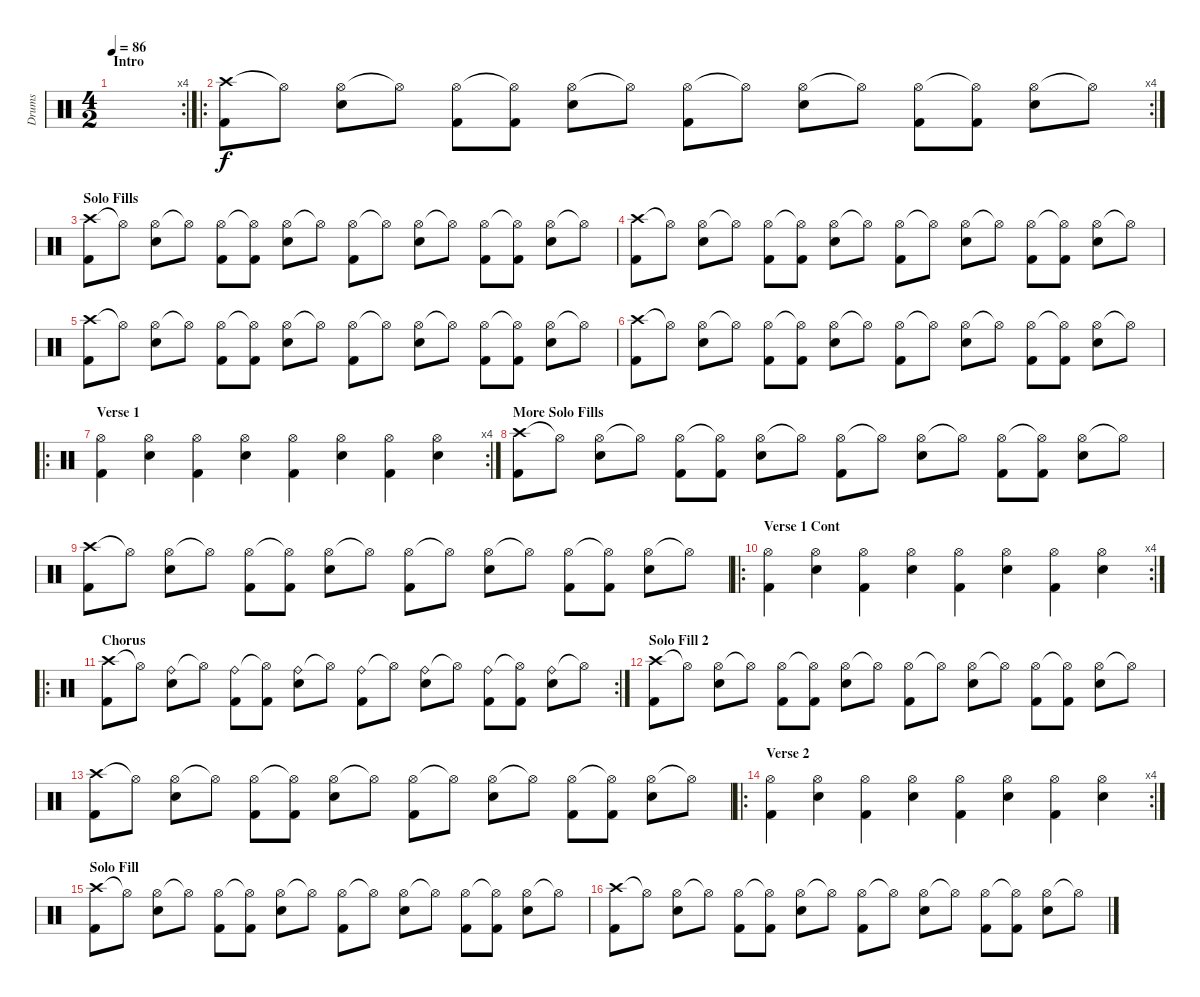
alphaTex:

\track ("Drums" "Drums") {instrument percussion}
\staff {score}
\articulation defaults
\rc 4
\ts (4 2)
\section ("" "Intro")
\tempo 86
\clef neutral
\ks c
|
\ro
\rc 4
("Crash high (hit)" "Kick (hit) 2").8 "Hi-Hat (open)"{t}.8 ("Hi-Hat (open)" "Electric Snare (hit)").8 "Hi-Hat (open)"{t}.8 ("Hi-Hat (open)" "Kick (hit) 2").8 ("Hi-Hat (open)"{t} "Kick (hit) 2").8 ("Hi-Hat (open)" "Electric Snare (hit)").8 "Hi-Hat (open)"{t}.8 ("Hi-Hat (open)" "Kick (hit) 2").8 "Hi-Hat (open)"{t}.8 ("Hi-Hat (open)" "Electric Snare (hit)").8 "Hi-Hat (open)"{t}.8 ("Hi-Hat (open)" "Kick (hit) 2").8 ("Hi-Hat (open)"{t} "Kick (hit) 2").8 ("Hi-Hat (open)" "Electric Snare (hit)").8 "Hi-Hat (open)"{t}.8 |
\section ("" "Solo Fills")
("Crash high (hit)" "Kick (hit) 2").8 "Hi-Hat (open)"{t}.8 ("Hi-Hat (open)" "Electric Snare (hit)").8 "Hi-Hat (open)"{t}.8 ("Hi-Hat (open)" "Kick (hit) 2").8 ("Hi-Hat (open)"{t} "Kick (hit) 2").8 ("Hi-Hat (open)" "Electric Snare (hit)").8 "Hi-Hat (open)"{t}.8 ("Hi-Hat (open)" "Kick (hit) 2").8 "Hi-Hat (open)"{t}.8 ("Hi-Hat (open)" "Electric Snare (hit)").8 "Hi-Hat (open)"{t}.8 ("Hi-Hat (open)" "Kick (hit) 2").8 ("Hi-Hat (open)"{t} "Kick (hit) 2").8 ("Hi-Hat (open)" "Electric Snare (hit)").8 "Hi-Hat (open)"{t}.8 |
("Crash high (hit)" "Kick (hit) 2").8 "Hi-Hat (open)"{t}.8 ("Hi-Hat (open)" "Electric Snare (hit)").8 "Hi-Hat (open)"{t}.8 ("Hi-Hat (open)" "Kick (hit) 2").8 ("Hi-Hat (open)"{t} "Kick (hit) 2").8 ("Hi-Hat (open)" "Electric Snare (hit)").8 "Hi-Hat (open)"{t}.8 ("Hi-Hat (open)" "Kick (hit) 2").8 "Hi-Hat (open)"{t}.8 ("Hi-Hat (open)" "Electric Snare (hit)").8 "Hi-Hat (open)"{t}.8 ("Hi-Hat (open)" "Kick (hit) 2").8 ("Hi-Hat (open)"{t} "Kick (hit) 2").8 ("Hi-Hat (open)" "Electric Snare (hit)").8 "Hi-Hat (open)"{t}.8 |
("Crash high (hit)" "Kick (hit) 2").8 "Hi-Hat (open)"{t}.8 ("Hi-Hat (open)" "Electric Snare (hit)").8 "Hi-Hat (open)"{t}.8 ("Hi-Hat (open)" "Kick (hit) 2").8 ("Hi-Hat (open)"{t} "Kick (hit) 2").8 ("Hi-Hat (open)" "Electric Snare (hit)").8 "Hi-Hat (open)"{t}.8 ("Hi-Hat (open)" "Kick (hit) 2").8 "Hi-Hat (open)"{t}.8 ("Hi-Hat (open)" "Electric Snare (hit)").8 "Hi-Hat (open)"{t}.8 ("Hi-Hat (open)" "Kick (hit) 2").8 ("Hi-Hat (open)"{t} "Kick (hit) 2").8 ("Hi-Hat (open)" "Electric Snare (hit)").8 "Hi-Hat (open)"{t}.8 |
("Crash high (hit)" "Kick (hit) 2").8 "Hi-Hat (open)"{t}.8 ("Hi-Hat (open)" "Electric Snare (hit)").8 "Hi-Hat (open)"{t}.8 ("Hi-Hat (open)" "Kick (hit) 2").8 ("Hi-Hat (open)"{t} "Kick (hit) 2").8 ("Hi-Hat (open)" "Electric Snare (hit)").8 "Hi-Hat (open)"{t}.8 ("Hi-Hat (open)" "Kick (hit) 2").8 "Hi-Hat (open)"{t}.8 ("Hi-Hat (open)" "Electric Snare (hit)").8 "Hi-Hat (open)"{t}.8 ("Hi-Hat (open)" "Kick (hit) 2").8 ("Hi-Hat (open)"{t} "Kick (hit) 2").8 ("Hi-Hat (open)" "Electric Snare (hit)").8 "Hi-Hat (open)"{t}.8 |
\ro
\rc 4
\section ("" "Verse 1")
("Hi-Hat (open)" "Kick (hit) 2").4 ("Hi-Hat (open)" "Electric Snare (hit)").4 ("Hi-Hat (open)" "Kick (hit) 2").4 ("Hi-Hat (open)" "Electric Snare (hit)").4 ("Hi-Hat (open)" "Kick (hit) 2").4 ("Hi-Hat (open)" "Electric Snare (hit)").4 ("Hi-Hat (open)" "Kick (hit) 2").4 ("Hi-Hat (open)" "Electric Snare (hit)").4 |
\section ("" "More Solo Fills")
("Crash high (hit)" "Kick (hit) 2").8 "Hi-Hat (open)"{t}.8 ("Hi-Hat (open)" "Electric Snare (hit)").8 "Hi-Hat (open)"{t}.8 ("Hi-Hat (open)" "Kick (hit) 2").8 ("Hi-Hat (open)"{t} "Kick (hit) 2").8 ("Hi-Hat (open)" "Electric Snare (hit)").8 "Hi-Hat (open)"{t}.8 ("Hi-Hat (open)" "Kick (hit) 2").8 "Hi-Hat (open)"{t}.8 ("Hi-Hat (open)" "Electric Snare (hit)").8 "Hi-Hat (open)"{t}.8 ("Hi-Hat (open)" "Kick (hit) 2").8 ("Hi-Hat (open)"{t} "Kick (hit) 2").8 ("Hi-Hat (open)" "Electric Snare (hit)").8 "Hi-Hat (open)"{t}.8 |
("Crash high (hit)" "Kick (hit) 2").8 "Hi-Hat (open)"{t}.8 ("Hi-Hat (open)" "Electric Snare (hit)").8 "Hi-Hat (open)"{t}.8 ("Hi-Hat (open)" "Kick (hit) 2").8 ("Hi-Hat (open)"{t} "Kick (hit) 2").8 ("Hi-Hat (open)" "Electric Snare (hit)").8 "Hi-Hat (open)"{t}.8 ("Hi-Hat (open)" "Kick (hit) 2").8 "Hi-Hat (open)"{t}.8 ("Hi-Hat (open)" "Electric Snare (hit)").8 "Hi-Hat (open)"{t}.8 ("Hi-Hat (open)" "Kick (hit) 2").8 ("Hi-Hat (open)"{t} "Kick (hit) 2").8 ("Hi-Hat (open)" "Electric Snare (hit)").8 "Hi-Hat (open)"{t}.8 |
\ro
\rc 4
\section ("" "Verse 1 Cont")
("Hi-Hat (open)" "Kick (hit) 2").4 ("Hi-Hat (open)" "Electric Snare (hit)").4 ("Hi-Hat (open)" "Kick (hit) 2").4 ("Hi-Hat (open)" "Electric Snare (hit)").4 ("Hi-Hat (open)" "Kick (hit) 2").4 ("Hi-Hat (open)" "Electric Snare (hit)").4 ("Hi-Hat (open)" "Kick (hit) 2").4 ("Hi-Hat (open)" "Electric Snare (hit)").4 |
\ro
\rc 2
\section ("" "Chorus")
("Crash high (hit)" "Kick (hit) 2").8 "Hi-Hat (open)"{t}.8 ("Ride (bell)" "Electric Snare (hit)").8 "Hi-Hat (open)"{t}.8 ("Ride (bell)" "Kick (hit) 2").8 ("Hi-Hat (open)"{t} "Kick (hit) 2").8 ("Ride (bell)" "Electric Snare (hit)").8 "Hi-Hat (open)"{t}.8 ("Ride (bell)" "Kick (hit) 2").8 "Hi-Hat (open)"{t}.8 ("Ride (bell)" "Electric Snare (hit)").8 "Hi-Hat (open)"{t}.8 ("Ride (bell)" "Kick (hit) 2").8 ("Hi-Hat (open)"{t} "Kick (hit) 2").8 ("Ride (bell)" "Electric Snare (hit)").8 "Hi-Hat (open)"{t}.8 |
\section ("" "Solo Fill 2")
("Crash high (hit)" "Kick (hit) 2").8 "Hi-Hat (open)"{t}.8 ("Hi-Hat (open)" "Electric Snare (hit)").8 "Hi-Hat (open)"{t}.8 ("Hi-Hat (open)" "Kick (hit) 2").8 ("Hi-Hat (open)"{t} "Kick (hit) 2").8 ("Hi-Hat (open)" "Electric Snare (hit)").8 "Hi-Hat (open)"{t}.8 ("Hi-Hat (open)" "Kick (hit) 2").8 "Hi-Hat (open)"{t}.8 ("Hi-Hat (open)" "Electric Snare (hit)").8 "Hi-Hat (open)"{t}.8 ("Hi-Hat (open)" "Kick (hit) 2").8 ("Hi-Hat (open)"{t} "Kick (hit) 2").8 ("Hi-Hat (open)" "Electric Snare (hit)").8 "Hi-Hat (open)"{t}.8 |
("Crash high (hit)" "Kick (hit) 2").8 "Hi-Hat (open)"{t}.8 ("Hi-Hat (open)" "Electric Snare (hit)").8 "Hi-Hat (open)"{t}.8 ("Hi-Hat (open)" "Kick (hit) 2").8 ("Hi-Hat (open)"{t} "Kick (hit) 2").8 ("Hi-Hat (open)" "Electric Snare (hit)").8 "Hi-Hat (open)"{t}.8 ("Hi-Hat (open)" "Kick (hit) 2").8 "Hi-Hat (open)"{t}.8 ("Hi-Hat (open)" "Electric Snare (hit)").8 "Hi-Hat (open)"{t}.8 ("Hi-Hat (open)" "Kick (hit) 2").8 ("Hi-Hat (open)"{t} "Kick (hit) 2").8 ("Hi-Hat (open)" "Electric Snare (hit)").8 "Hi-Hat (open)"{t}.8 |
\ro
\rc 4
\section ("" "Verse 2")
("Hi-Hat (open)" "Kick (hit) 2").4 ("Hi-Hat (open)" "Electric Snare (hit)").4 ("Hi-Hat (open)" "Kick (hit) 2").4 ("Hi-Hat (open)" "Electric Snare (hit)").4 ("Hi-Hat (open)" "Kick (hit) 2").4 ("Hi-Hat (open)" "Electric Snare (hit)").4 ("Hi-Hat (open)" "Kick (hit) 2").4 ("Hi-Hat (open)" "Electric Snare (hit)").4 |
\section ("" "Solo Fill")
("Crash high (hit)" "Kick (hit) 2").8 "Hi-Hat (open)"{t}.8 ("Hi-Hat (open)" "Electric Snare (hit)").8 "Hi-Hat (open)"{t}.8 ("Hi-Hat (open)" "Kick (hit) 2").8 ("Hi-Hat (open)"{t} "Kick (hit) 2").8 ("Hi-Hat (open)" "Electric Snare (hit)").8 "Hi-Hat (open)"{t}.8 ("Hi-Hat (open)" "Kick (hit) 2").8 "Hi-Hat (open)"{t}.8 ("Hi-Hat (open)" "Electric Snare (hit)").8 "Hi-Hat (open)"{t}.8 ("Hi-Hat (open)" "Kick (hit) 2").8 ("Hi-Hat (open)"{t} "Kick (hit) 2").8 ("Hi-Hat (open)" "Electric Snare (hit)").8 "Hi-Hat (open)"{t}.8 |
("Crash high (hit)" "Kick (hit) 2").8 "Hi-Hat (open)"{t}.8 ("Hi-Hat (open)" "Electric Snare (hit)").8 "Hi-Hat (open)"{t}.8 ("Hi-Hat (open)" "Kick (hit) 2").8 ("Hi-Hat (open)"{t} "Kick (hit) 2").8 ("Hi-Hat (open)" "Electric Snare (hit)").8 "Hi-Hat (open)"{t}.8 ("Hi-Hat (open)" "Kick (hit) 2").8 "Hi-Hat (open)"{t}.8 ("Hi-Hat (open)" "Electric Snare (hit)").8 "Hi-Hat (open)"{t}.8 ("Hi-Hat (open)" "Kick (hit) 2").8 ("Hi-Hat (open)"{t} "Kick (hit) 2").8 ("Hi-Hat (open)" "Electric Snare (hit)").8 "Hi-Hat (open)"{t}.8
